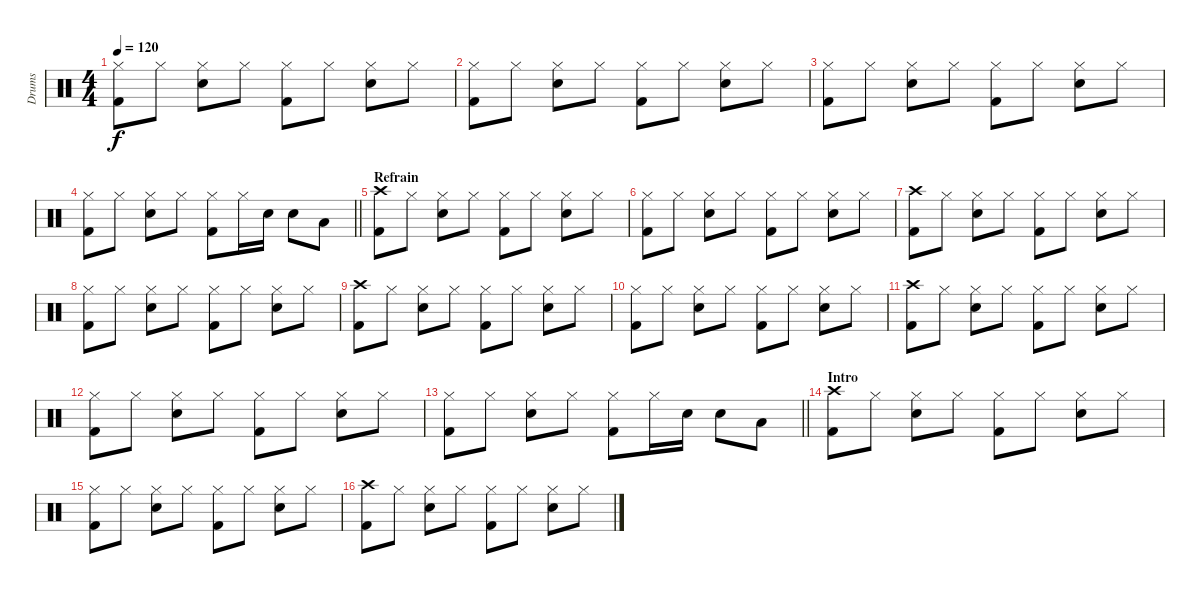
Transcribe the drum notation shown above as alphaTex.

\track ("Drums" "Drums") {instrument percussion}
\staff {score}
\articulation defaults
\ts (4 4)
\tempo 120
\clef neutral
\ks c
("Hi-Hat (closed)" "Kick (hit) 2").8{dy f} "Hi-Hat (closed)".8 ("Hi-Hat (closed)" "Snare (hit) 2").8 "Hi-Hat (closed)".8 ("Hi-Hat (closed)" "Kick (hit) 2").8 "Hi-Hat (closed)".8 ("Hi-Hat (closed)" "Snare (hit) 2").8 "Hi-Hat (closed)".8 |
("Hi-Hat (closed)" "Kick (hit) 2").8 "Hi-Hat (closed)".8 ("Hi-Hat (closed)" "Snare (hit) 2").8 "Hi-Hat (closed)".8 ("Hi-Hat (closed)" "Kick (hit) 2").8 "Hi-Hat (closed)".8 ("Hi-Hat (closed)" "Snare (hit) 2").8 "Hi-Hat (closed)".8 |
("Hi-Hat (closed)" "Kick (hit) 2").8 "Hi-Hat (closed)".8 ("Hi-Hat (closed)" "Snare (hit) 2").8 "Hi-Hat (closed)".8 ("Hi-Hat (closed)" "Kick (hit) 2").8 "Hi-Hat (closed)".8 ("Hi-Hat (closed)" "Snare (hit) 2").8 "Hi-Hat (closed)".8 |
\barLineRight lightlight
("Hi-Hat (closed)" "Kick (hit) 2").8 "Hi-Hat (closed)".8 ("Hi-Hat (closed)" "Snare (hit) 2").8 "Hi-Hat (closed)".8 ("Hi-Hat (closed)" "Kick (hit) 2").8 "Hi-Hat (closed)".16 "Snare (hit) 2".16 "Snare (hit) 2".8 "Low Tom (hit)".8 |
\section ("" "Refrain")
("Crash high (hit)" "Kick (hit) 2").8 "Hi-Hat (closed)".8 ("Hi-Hat (closed)" "Snare (hit) 2").8 "Hi-Hat (closed)".8 ("Hi-Hat (closed)" "Kick (hit) 2").8 "Hi-Hat (closed)".8 ("Hi-Hat (closed)" "Snare (hit) 2").8 "Hi-Hat (closed)".8 |
("Hi-Hat (closed)" "Kick (hit) 2").8 "Hi-Hat (closed)".8 ("Hi-Hat (closed)" "Snare (hit) 2").8 "Hi-Hat (closed)".8 ("Hi-Hat (closed)" "Kick (hit) 2").8 "Hi-Hat (closed)".8 ("Hi-Hat (closed)" "Snare (hit) 2").8 "Hi-Hat (closed)".8 |
("Crash high (hit)" "Kick (hit) 2").8 "Hi-Hat (closed)".8 ("Hi-Hat (closed)" "Snare (hit) 2").8 "Hi-Hat (closed)".8 ("Hi-Hat (closed)" "Kick (hit) 2").8 "Hi-Hat (closed)".8 ("Hi-Hat (closed)" "Snare (hit) 2").8 "Hi-Hat (closed)".8 |
("Hi-Hat (closed)" "Kick (hit) 2").8 "Hi-Hat (closed)".8 ("Hi-Hat (closed)" "Snare (hit) 2").8 "Hi-Hat (closed)".8 ("Hi-Hat (closed)" "Kick (hit) 2").8 "Hi-Hat (closed)".8 ("Hi-Hat (closed)" "Snare (hit) 2").8 "Hi-Hat (closed)".8 |
("Crash high (hit)" "Kick (hit) 2").8 "Hi-Hat (closed)".8 ("Hi-Hat (closed)" "Snare (hit) 2").8 "Hi-Hat (closed)".8 ("Hi-Hat (closed)" "Kick (hit) 2").8 "Hi-Hat (closed)".8 ("Hi-Hat (closed)" "Snare (hit) 2").8 "Hi-Hat (closed)".8 |
("Hi-Hat (closed)" "Kick (hit) 2").8 "Hi-Hat (closed)".8 ("Hi-Hat (closed)" "Snare (hit) 2").8 "Hi-Hat (closed)".8 ("Hi-Hat (closed)" "Kick (hit) 2").8 "Hi-Hat (closed)".8 ("Hi-Hat (closed)" "Snare (hit) 2").8 "Hi-Hat (closed)".8 |
("Crash high (hit)" "Kick (hit) 2").8 "Hi-Hat (closed)".8 ("Hi-Hat (closed)" "Snare (hit) 2").8 "Hi-Hat (closed)".8 ("Hi-Hat (closed)" "Kick (hit) 2").8 "Hi-Hat (closed)".8 ("Hi-Hat (closed)" "Snare (hit) 2").8 "Hi-Hat (closed)".8 |
("Hi-Hat (closed)" "Kick (hit) 2").8 "Hi-Hat (closed)".8 ("Hi-Hat (closed)" "Snare (hit) 2").8 "Hi-Hat (closed)".8 ("Hi-Hat (closed)" "Kick (hit) 2").8 "Hi-Hat (closed)".8 ("Hi-Hat (closed)" "Snare (hit) 2").8 "Hi-Hat (closed)".8 |
\barLineRight lightlight
("Hi-Hat (closed)" "Kick (hit) 2").8 "Hi-Hat (closed)".8 ("Hi-Hat (closed)" "Snare (hit) 2").8 "Hi-Hat (closed)".8 ("Hi-Hat (closed)" "Kick (hit) 2").8 "Hi-Hat (closed)".16 "Snare (hit) 2".16 "Snare (hit) 2".8 "Low Tom (hit)".8 |
\section ("" "Intro")
("Crash high (hit)" "Kick (hit) 2").8 "Hi-Hat (closed)".8 ("Hi-Hat (closed)" "Snare (hit) 2").8 "Hi-Hat (closed)".8 ("Hi-Hat (closed)" "Kick (hit) 2").8 "Hi-Hat (closed)".8 ("Hi-Hat (closed)" "Snare (hit) 2").8 "Hi-Hat (closed)".8 |
("Hi-Hat (closed)" "Kick (hit) 2").8 "Hi-Hat (closed)".8 ("Hi-Hat (closed)" "Snare (hit) 2").8 "Hi-Hat (closed)".8 ("Hi-Hat (closed)" "Kick (hit) 2").8 "Hi-Hat (closed)".8 ("Hi-Hat (closed)" "Snare (hit) 2").8 "Hi-Hat (closed)".8 |
("Crash high (hit)" "Kick (hit) 2").8 "Hi-Hat (closed)".8 ("Hi-Hat (closed)" "Snare (hit) 2").8 "Hi-Hat (closed)".8 ("Hi-Hat (closed)" "Kick (hit) 2").8 "Hi-Hat (closed)".8 ("Hi-Hat (closed)" "Snare (hit) 2").8 "Hi-Hat (closed)".8
